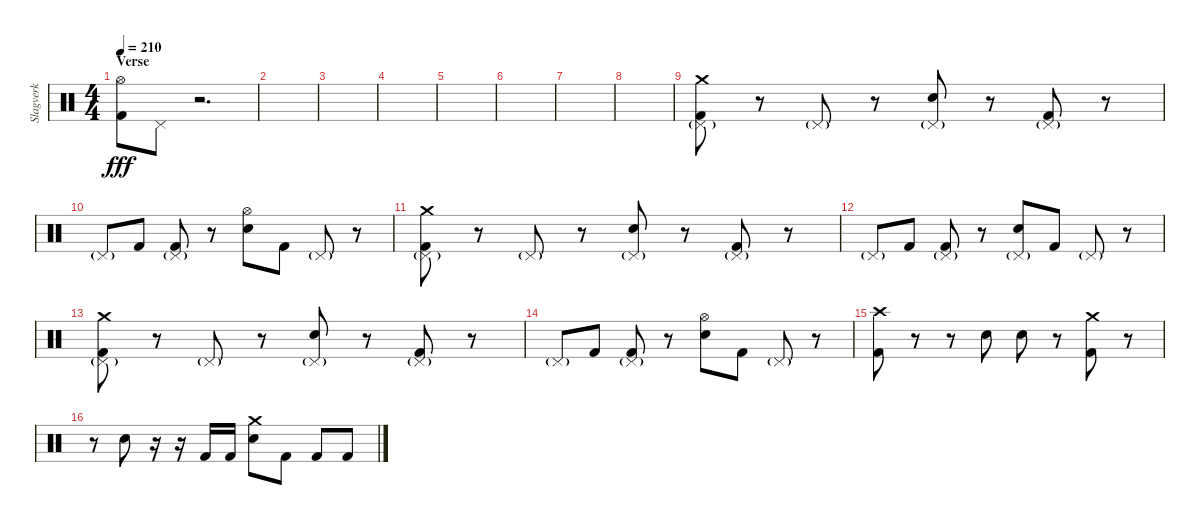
\track ("Slagverk" "Slagverk") {instrument percussion}
\staff {score}
\articulation defaults
\ts (4 4)
\section ("" "Verse")
\tempo 210
\clef neutral
\ks c
("Hi-Hat (open)" "Kick (hit) 2").8{dy fff} "Pedal Hi-Hat (hit)".8 r.2{d} |
|
|
|
|
|
|
|
("Crash medium (hit)" "Pedal Hi-Hat (hit)"{g} "Kick (hit) 2").8 r.8 "Pedal Hi-Hat (hit)"{g}.8 r.8 ("Pedal Hi-Hat (hit)"{g} "Electric Snare (hit)").8 r.8 ("Pedal Hi-Hat (hit)"{g} "Kick (hit) 2").8 r.8 |
"Pedal Hi-Hat (hit)"{g}.8 "Kick (hit) 2".8 ("Pedal Hi-Hat (hit)"{g} "Kick (hit) 2").8 r.8 ("Hi-Hat (open)" "Electric Snare (hit)").8 "Kick (hit) 2".8 "Pedal Hi-Hat (hit)"{g}.8 r.8 |
("Crash medium (hit)" "Pedal Hi-Hat (hit)"{g} "Kick (hit) 2").8 r.8 "Pedal Hi-Hat (hit)"{g}.8 r.8 ("Pedal Hi-Hat (hit)"{g} "Electric Snare (hit)").8 r.8 ("Pedal Hi-Hat (hit)"{g} "Kick (hit) 2").8 r.8 |
"Pedal Hi-Hat (hit)"{g}.8 "Kick (hit) 2".8 ("Pedal Hi-Hat (hit)"{g} "Kick (hit) 2").8 r.8 ("Pedal Hi-Hat (hit)"{g} "Electric Snare (hit)").8 "Kick (hit) 2".8 "Pedal Hi-Hat (hit)"{g}.8 r.8 |
("Crash medium (hit)" "Pedal Hi-Hat (hit)"{g} "Kick (hit) 2").8 r.8 "Pedal Hi-Hat (hit)"{g}.8 r.8 ("Pedal Hi-Hat (hit)"{g} "Electric Snare (hit)").8 r.8 ("Pedal Hi-Hat (hit)"{g} "Kick (hit) 2").8 r.8 |
"Pedal Hi-Hat (hit)"{g}.8 "Kick (hit) 2".8 ("Pedal Hi-Hat (hit)"{g} "Kick (hit) 2").8 r.8 ("Hi-Hat (open)" "Electric Snare (hit)").8 "Kick (hit) 2".8 "Pedal Hi-Hat (hit)"{g}.8 r.8 |
("Crash high (hit)" "Kick (hit) 2").8 r.8 r.8 "Electric Snare (hit)".8 "Electric Snare (hit)".8 r.8 ("Crash medium (hit)" "Kick (hit) 2").8 r.8 |
r.8 "Electric Snare (hit)".8 r.16 r.16 "Kick (hit) 2".16 "Kick (hit) 2".16 ("Crash medium (hit)" "Electric Snare (hit)").8 "Kick (hit) 2".8 "Kick (hit) 2".8 "Kick (hit) 2".8
